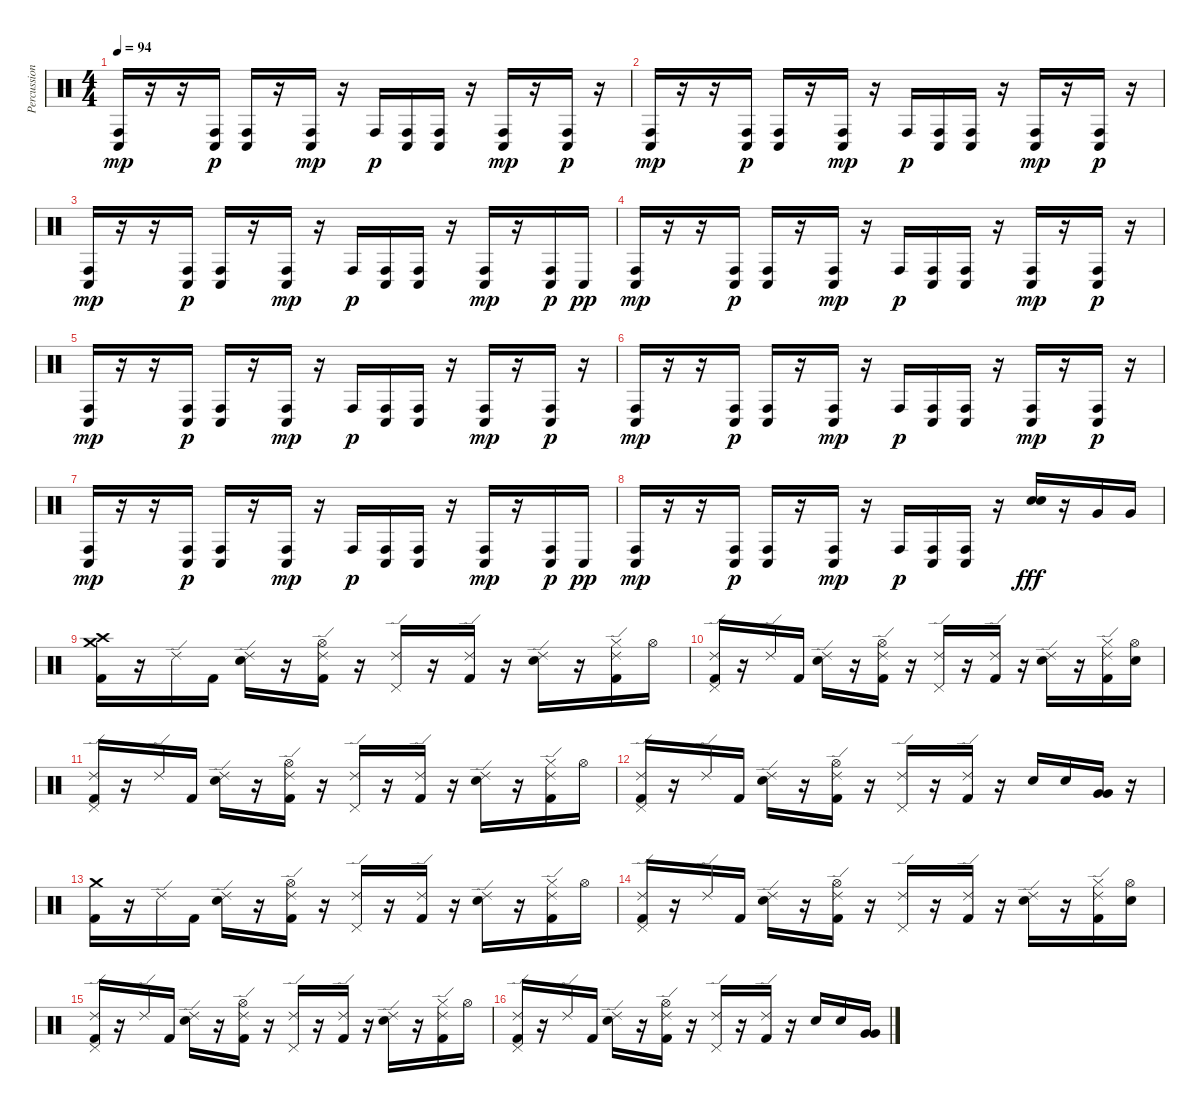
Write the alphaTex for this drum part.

\track ("Percussions" "Percussion") {instrument percussion}
\staff {score}
\articulation defaults
\ts (4 4)
\tempo 94
\clef neutral
\ks c
("Conga low (hit)" "Conga high (hit)").16{dy mp} r.16 r.16 ("Conga low (hit)" "Conga high (hit)").16{dy p} ("Conga low (hit)" "Conga high (hit)").16 r.16 ("Conga low (hit)" "Conga high (hit)").16{dy mp} r.16 "Conga high (hit)".16{dy p} ("Conga low (hit)" "Conga high (hit)").16 ("Conga low (hit)" "Conga high (hit)").16 r.16 ("Conga low (hit)" "Conga high (hit)").16{dy mp} r.16 ("Conga low (hit)" "Conga high (hit)").16{dy p} r.16 |
("Conga low (hit)" "Conga high (hit)").16{dy mp} r.16 r.16 ("Conga low (hit)" "Conga high (hit)").16{dy p} ("Conga low (hit)" "Conga high (hit)").16 r.16 ("Conga low (hit)" "Conga high (hit)").16{dy mp} r.16 "Conga high (hit)".16{dy p} ("Conga low (hit)" "Conga high (hit)").16 ("Conga low (hit)" "Conga high (hit)").16 r.16 ("Conga low (hit)" "Conga high (hit)").16{dy mp} r.16 ("Conga low (hit)" "Conga high (hit)").16{dy p} r.16 |
("Conga low (hit)" "Conga high (hit)").16{dy mp} r.16 r.16 ("Conga low (hit)" "Conga high (hit)").16{dy p} ("Conga low (hit)" "Conga high (hit)").16 r.16 ("Conga low (hit)" "Conga high (hit)").16{dy mp} r.16 "Conga high (hit)".16{dy p} ("Conga low (hit)" "Conga high (hit)").16 ("Conga low (hit)" "Conga high (hit)").16 r.16 ("Conga low (hit)" "Conga high (hit)").16{dy mp} r.16 ("Conga low (hit)" "Conga high (hit)").16{dy p} "Conga low (hit)".16{dy pp} |
("Conga low (hit)" "Conga high (hit)").16{dy mp} r.16 r.16 ("Conga low (hit)" "Conga high (hit)").16{dy p} ("Conga low (hit)" "Conga high (hit)").16 r.16 ("Conga low (hit)" "Conga high (hit)").16{dy mp} r.16 "Conga high (hit)".16{dy p} ("Conga low (hit)" "Conga high (hit)").16 ("Conga low (hit)" "Conga high (hit)").16 r.16 ("Conga low (hit)" "Conga high (hit)").16{dy mp} r.16 ("Conga low (hit)" "Conga high (hit)").16{dy p} r.16 |
("Conga low (hit)" "Conga high (hit)").16{dy mp} r.16 r.16 ("Conga low (hit)" "Conga high (hit)").16{dy p} ("Conga low (hit)" "Conga high (hit)").16 r.16 ("Conga low (hit)" "Conga high (hit)").16{dy mp} r.16 "Conga high (hit)".16{dy p} ("Conga low (hit)" "Conga high (hit)").16 ("Conga low (hit)" "Conga high (hit)").16 r.16 ("Conga low (hit)" "Conga high (hit)").16{dy mp} r.16 ("Conga low (hit)" "Conga high (hit)").16{dy p} r.16 |
("Conga low (hit)" "Conga high (hit)").16{dy mp} r.16 r.16 ("Conga low (hit)" "Conga high (hit)").16{dy p} ("Conga low (hit)" "Conga high (hit)").16 r.16 ("Conga low (hit)" "Conga high (hit)").16{dy mp} r.16 "Conga high (hit)".16{dy p} ("Conga low (hit)" "Conga high (hit)").16 ("Conga low (hit)" "Conga high (hit)").16 r.16 ("Conga low (hit)" "Conga high (hit)").16{dy mp} r.16 ("Conga low (hit)" "Conga high (hit)").16{dy p} r.16 |
("Conga low (hit)" "Conga high (hit)").16{dy mp} r.16 r.16 ("Conga low (hit)" "Conga high (hit)").16{dy p} ("Conga low (hit)" "Conga high (hit)").16 r.16 ("Conga low (hit)" "Conga high (hit)").16{dy mp} r.16 "Conga high (hit)".16{dy p} ("Conga low (hit)" "Conga high (hit)").16 ("Conga low (hit)" "Conga high (hit)").16 r.16 ("Conga low (hit)" "Conga high (hit)").16{dy mp} r.16 ("Conga low (hit)" "Conga high (hit)").16{dy p} "Conga low (hit)".16{dy pp} |
("Conga low (hit)" "Conga high (hit)").16{dy mp} r.16 r.16 ("Conga low (hit)" "Conga high (hit)").16{dy p} ("Conga low (hit)" "Conga high (hit)").16 r.16 ("Conga low (hit)" "Conga high (hit)").16{dy mp} r.16 "Conga high (hit)".16{dy p} ("Conga low (hit)" "Conga high (hit)").16 ("Conga low (hit)" "Conga high (hit)").16 r.16 ("Electric Snare (hit)" "Electric Snare (hit)").16{dy fff} r.16 "Very Low Tom (hit)".16 "Very Low Tom (hit)".16 |
("Crash medium (hit)" "Crash high (hit)" "Kick (hit) 2").16 r.16 "Ride (edge) 2".16 "Kick (hit) 2".16 ("Ride (edge) 2" "Electric Snare (hit)").16 r.16 ("Ride (edge) 2" "Hi-Hat (open)" "Kick (hit) 2").16 r.16 ("Ride (edge) 2" "Pedal Hi-Hat (hit)").16 r.16 ("Ride (edge) 2" "Kick (hit) 2").16 r.16 ("Ride (edge) 2" "Electric Snare (hit)").16 r.16 ("Ride (edge) 2" "Hi-Hat (closed)" "Kick (hit) 2").16 "Hi-Hat (open)".16 |
("Ride (edge) 2" "Pedal Hi-Hat (hit)" "Kick (hit) 2").16 r.16 "Ride (edge) 2".16 "Kick (hit) 2".16 ("Ride (edge) 2" "Electric Snare (hit)").16 r.16 ("Ride (edge) 2" "Hi-Hat (open)" "Kick (hit) 2").16 r.16 ("Ride (edge) 2" "Pedal Hi-Hat (hit)").16 r.16 ("Ride (edge) 2" "Kick (hit) 2").16 r.16 ("Ride (edge) 2" "Electric Snare (hit)").16 r.16 ("Ride (edge) 2" "Hi-Hat (closed)" "Kick (hit) 2").16 ("Hi-Hat (open)" "Electric Snare (hit)").16 |
("Ride (edge) 2" "Pedal Hi-Hat (hit)" "Kick (hit) 2").16 r.16 "Ride (edge) 2".16 "Kick (hit) 2".16 ("Ride (edge) 2" "Electric Snare (hit)").16 r.16 ("Ride (edge) 2" "Hi-Hat (open)" "Kick (hit) 2").16 r.16 ("Ride (edge) 2" "Pedal Hi-Hat (hit)").16 r.16 ("Ride (edge) 2" "Kick (hit) 2").16 r.16 ("Ride (edge) 2" "Electric Snare (hit)").16 r.16 ("Ride (edge) 2" "Hi-Hat (closed)" "Kick (hit) 2").16 "Hi-Hat (open)".16 |
("Ride (edge) 2" "Pedal Hi-Hat (hit)" "Kick (hit) 2").16 r.16 "Ride (edge) 2".16 "Kick (hit) 2".16 ("Ride (edge) 2" "Electric Snare (hit)").16 r.16 ("Ride (edge) 2" "Hi-Hat (open)" "Kick (hit) 2").16 r.16 ("Ride (edge) 2" "Pedal Hi-Hat (hit)").16 r.16 ("Ride (edge) 2" "Kick (hit) 2").16 r.16 "Electric Snare (hit)".16 "Electric Snare (hit)".16 ("Very Low Tom (hit)" "Very Low Tom (hit)").16 r.16 |
("Crash medium (hit)" "Kick (hit) 2").16 r.16 "Ride (edge) 2".16 "Kick (hit) 2".16 ("Ride (edge) 2" "Electric Snare (hit)").16 r.16 ("Ride (edge) 2" "Hi-Hat (open)" "Kick (hit) 2").16 r.16 ("Ride (edge) 2" "Pedal Hi-Hat (hit)").16 r.16 ("Ride (edge) 2" "Kick (hit) 2").16 r.16 ("Ride (edge) 2" "Electric Snare (hit)").16 r.16 ("Ride (edge) 2" "Hi-Hat (closed)" "Kick (hit) 2").16 "Hi-Hat (open)".16 |
("Ride (edge) 2" "Pedal Hi-Hat (hit)" "Kick (hit) 2").16 r.16 "Ride (edge) 2".16 "Kick (hit) 2".16 ("Ride (edge) 2" "Electric Snare (hit)").16 r.16 ("Ride (edge) 2" "Hi-Hat (open)" "Kick (hit) 2").16 r.16 ("Ride (edge) 2" "Pedal Hi-Hat (hit)").16 r.16 ("Ride (edge) 2" "Kick (hit) 2").16 r.16 ("Ride (edge) 2" "Electric Snare (hit)").16 r.16 ("Ride (edge) 2" "Hi-Hat (closed)" "Kick (hit) 2").16 ("Hi-Hat (open)" "Electric Snare (hit)").16 |
("Ride (edge) 2" "Pedal Hi-Hat (hit)" "Kick (hit) 2").16 r.16 "Ride (edge) 2".16 "Kick (hit) 2".16 ("Ride (edge) 2" "Electric Snare (hit)").16 r.16 ("Ride (edge) 2" "Hi-Hat (open)" "Kick (hit) 2").16 r.16 ("Ride (edge) 2" "Pedal Hi-Hat (hit)").16 r.16 ("Ride (edge) 2" "Kick (hit) 2").16 r.16 ("Ride (edge) 2" "Electric Snare (hit)").16 r.16 ("Ride (edge) 2" "Hi-Hat (closed)" "Kick (hit) 2").16 "Hi-Hat (open)".16 |
("Ride (edge) 2" "Pedal Hi-Hat (hit)" "Kick (hit) 2").16 r.16 "Ride (edge) 2".16 "Kick (hit) 2".16 ("Ride (edge) 2" "Electric Snare (hit)").16 r.16 ("Ride (edge) 2" "Hi-Hat (open)" "Kick (hit) 2").16 r.16 ("Ride (edge) 2" "Pedal Hi-Hat (hit)").16 r.16 ("Ride (edge) 2" "Kick (hit) 2").16 r.16 "Electric Snare (hit)".16 "Electric Snare (hit)".16 ("Very Low Tom (hit)" "Very Low Tom (hit)").16
